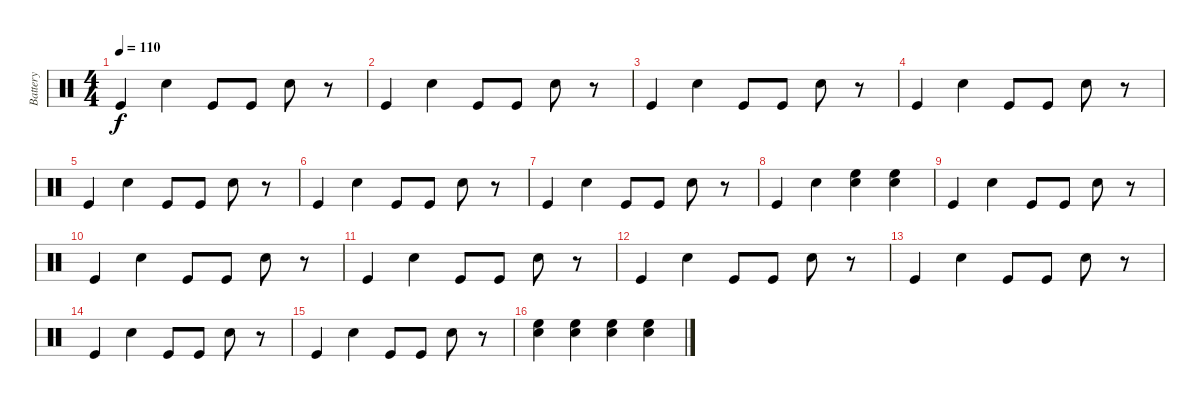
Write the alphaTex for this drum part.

\track ("Battery" "Battery") {instrument percussion}
\staff {score}
\articulation defaults
\ts (4 4)
\tempo 110
\clef neutral
\ks c "Kick (hit)".4{dy f} "Snare (hit) 2".4 "Kick (hit)".8 "Kick (hit)".8 "Snare (hit) 2".8
r.8 |
"Kick (hit)".4 "Snare (hit) 2".4 "Kick (hit)".8 "Kick (hit)".8 "Snare (hit) 2".8 r.8 |
"Kick (hit)".4 "Snare (hit) 2".4 "Kick (hit)".8 "Kick (hit)".8 "Snare (hit) 2".8 r.8 |
"Kick (hit)".4 "Snare (hit) 2".4 "Kick (hit)".8 "Kick (hit)".8 "Snare (hit) 2".8 r.8 |
"Kick (hit)".4 "Snare (hit) 2".4 "Kick (hit)".8 "Kick (hit)".8 "Snare (hit) 2".8 r.8 |
"Kick (hit)".4 "Snare (hit) 2".4 "Kick (hit)".8 "Kick (hit)".8 "Snare (hit) 2".8 r.8 |
"Kick (hit)".4 "Snare (hit) 2".4 "Kick (hit)".8 "Kick (hit)".8 "Snare (hit) 2".8 r.8 |
"Kick (hit)".4 "Snare (hit) 2".4 ("High Floor Tom (hit)" "Snare (hit) 2").4 ("High Floor Tom (hit)" "Snare (hit) 2").4 |
"Kick (hit)".4 "Snare (hit) 2".4 "Kick (hit)".8 "Kick (hit)".8 "Snare (hit) 2".8 r.8 |
"Kick (hit)".4 "Snare (hit) 2".4 "Kick (hit)".8 "Kick (hit)".8 "Snare (hit) 2".8 r.8 |
"Kick (hit)".4 "Snare (hit) 2".4 "Kick (hit)".8 "Kick (hit)".8 "Snare (hit) 2".8 r.8 |
"Kick (hit)".4 "Snare (hit) 2".4 "Kick (hit)".8 "Kick (hit)".8 "Snare (hit) 2".8 r.8 |
"Kick (hit)".4 "Snare (hit) 2".4 "Kick (hit)".8 "Kick (hit)".8 "Snare (hit) 2".8 r.8 |
"Kick (hit)".4 "Snare (hit) 2".4 "Kick (hit)".8 "Kick (hit)".8 "Snare (hit) 2".8 r.8 |
"Kick (hit)".4 "Snare (hit) 2".4 "Kick (hit)".8 "Kick (hit)".8 "Snare (hit) 2".8 r.8 |
("High Floor Tom (hit)" "Snare (hit) 2").4 ("High Floor Tom (hit)" "Snare (hit) 2").4 ("High Floor Tom (hit)" "Snare (hit) 2").4 ("High Floor Tom (hit)" "Snare (hit) 2").4
